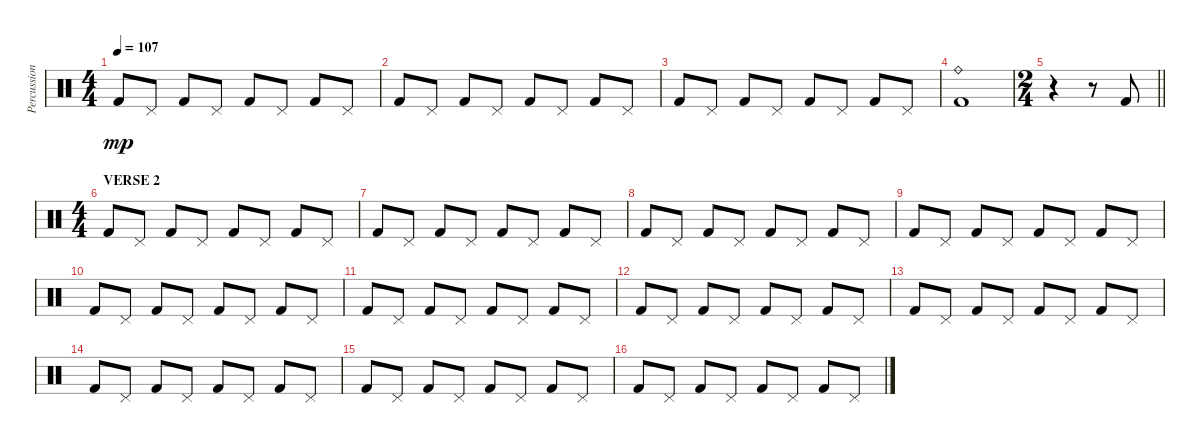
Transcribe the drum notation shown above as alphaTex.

\track ("Percussion" "Percussion") {instrument percussion}
\staff {score}
\articulation defaults
\ts (4 4)
\tempo 107
\clef neutral
\ks c "Kick (hit) 2".8{dy mp} "Pedal Hi-Hat (hit)".8 "Kick (hit) 2".8 "Pedal Hi-Hat (hit)".8 "Kick (hit) 2".8 "Pedal Hi-Hat (hit)".8 "Kick (hit) 2".8 "Pedal Hi-Hat (hit)".8
|
"Kick (hit) 2".8 "Pedal Hi-Hat (hit)".8 "Kick (hit) 2".8 "Pedal Hi-Hat (hit)".8 "Kick (hit) 2".8 "Pedal Hi-Hat (hit)".8 "Kick (hit) 2".8 "Pedal Hi-Hat (hit)".8 |
"Kick (hit) 2".8 "Pedal Hi-Hat (hit)".8 "Kick (hit) 2".8 "Pedal Hi-Hat (hit)".8 "Kick (hit) 2".8 "Pedal Hi-Hat (hit)".8 "Kick (hit) 2".8 "Pedal Hi-Hat (hit)".8 |
("Kick (hit) 2" "Ride (bell)").1 |
\ts (2 4)
\barLineRight lightlight
r.4 r.8 "Kick (hit) 2".8 |
\ts (4 4)
\section ("" "VERSE 2")
"Kick (hit) 2".8 "Pedal Hi-Hat (hit)".8 "Kick (hit) 2".8 "Pedal Hi-Hat (hit)".8 "Kick (hit) 2".8 "Pedal Hi-Hat (hit)".8 "Kick (hit) 2".8 "Pedal Hi-Hat (hit)".8 |
"Kick (hit) 2".8 "Pedal Hi-Hat (hit)".8 "Kick (hit) 2".8 "Pedal Hi-Hat (hit)".8 "Kick (hit) 2".8 "Pedal Hi-Hat (hit)".8 "Kick (hit) 2".8 "Pedal Hi-Hat (hit)".8 |
"Kick (hit) 2".8 "Pedal Hi-Hat (hit)".8 "Kick (hit) 2".8 "Pedal Hi-Hat (hit)".8 "Kick (hit) 2".8 "Pedal Hi-Hat (hit)".8 "Kick (hit) 2".8 "Pedal Hi-Hat (hit)".8 |
"Kick (hit) 2".8 "Pedal Hi-Hat (hit)".8 "Kick (hit) 2".8 "Pedal Hi-Hat (hit)".8 "Kick (hit) 2".8 "Pedal Hi-Hat (hit)".8 "Kick (hit) 2".8 "Pedal Hi-Hat (hit)".8 |
"Kick (hit) 2".8 "Pedal Hi-Hat (hit)".8 "Kick (hit) 2".8 "Pedal Hi-Hat (hit)".8 "Kick (hit) 2".8 "Pedal Hi-Hat (hit)".8 "Kick (hit) 2".8 "Pedal Hi-Hat (hit)".8 |
"Kick (hit) 2".8 "Pedal Hi-Hat (hit)".8 "Kick (hit) 2".8 "Pedal Hi-Hat (hit)".8 "Kick (hit) 2".8 "Pedal Hi-Hat (hit)".8 "Kick (hit) 2".8 "Pedal Hi-Hat (hit)".8 |
"Kick (hit) 2".8 "Pedal Hi-Hat (hit)".8 "Kick (hit) 2".8 "Pedal Hi-Hat (hit)".8 "Kick (hit) 2".8 "Pedal Hi-Hat (hit)".8 "Kick (hit) 2".8 "Pedal Hi-Hat (hit)".8 |
"Kick (hit) 2".8 "Pedal Hi-Hat (hit)".8 "Kick (hit) 2".8 "Pedal Hi-Hat (hit)".8 "Kick (hit) 2".8 "Pedal Hi-Hat (hit)".8 "Kick (hit) 2".8 "Pedal Hi-Hat (hit)".8 |
"Kick (hit) 2".8 "Pedal Hi-Hat (hit)".8 "Kick (hit) 2".8 "Pedal Hi-Hat (hit)".8 "Kick (hit) 2".8 "Pedal Hi-Hat (hit)".8 "Kick (hit) 2".8 "Pedal Hi-Hat (hit)".8 |
"Kick (hit) 2".8 "Pedal Hi-Hat (hit)".8 "Kick (hit) 2".8 "Pedal Hi-Hat (hit)".8 "Kick (hit) 2".8 "Pedal Hi-Hat (hit)".8 "Kick (hit) 2".8 "Pedal Hi-Hat (hit)".8 |
"Kick (hit) 2".8 "Pedal Hi-Hat (hit)".8 "Kick (hit) 2".8 "Pedal Hi-Hat (hit)".8 "Kick (hit) 2".8 "Pedal Hi-Hat (hit)".8 "Kick (hit) 2".8 "Pedal Hi-Hat (hit)".8
